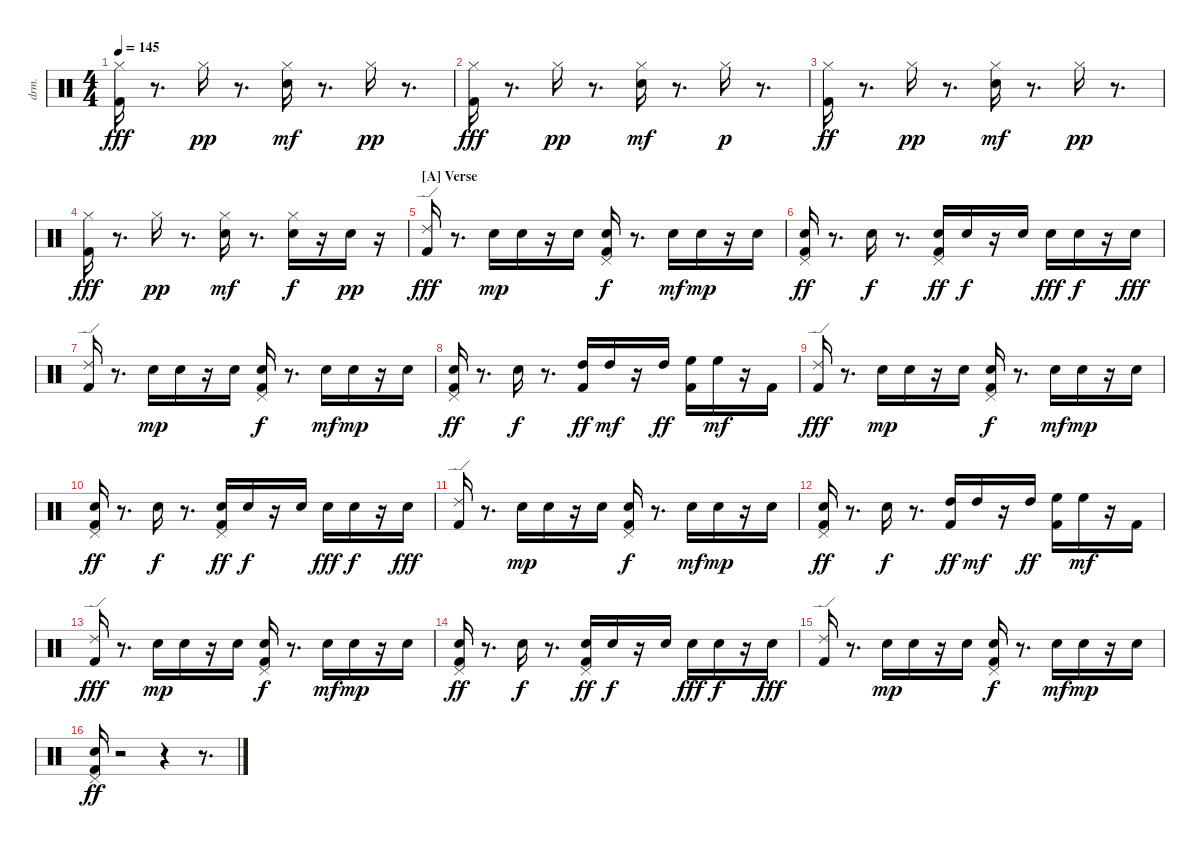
\bracketExtendMode nobrackets
\track ("EZdrummer 3" "drm.") {instrument percussion}
\staff {score}
\articulation defaults
\ts (4 4)
\tempo 145
\clef neutral
\ks aminor
("Kick (hit) 2" "Hi-Hat (closed)"{acc #}).16{dy fff} r.8{d} "Hi-Hat (closed)"{acc #}.16{dy pp} r.8{d} ("Snare (hit) 2" "Hi-Hat (closed)"{acc #}).16{dy mf} r.8{d} "Hi-Hat (closed)"{acc #}.16{dy pp} r.8{d} |
("Kick (hit) 2" "Hi-Hat (closed)"{acc #}).16{dy fff} r.8{d} "Hi-Hat (closed)"{acc #}.16{dy pp} r.8{d} ("Snare (hit) 2" "Hi-Hat (closed)"{acc #}).16{dy mf} r.8{d} "Hi-Hat (closed)"{acc #}.16{dy p} r.8{d} |
("Kick (hit) 2" "Hi-Hat (closed)"{acc #}).16{dy ff} r.8{d} "Hi-Hat (closed)"{acc #}.16{dy pp} r.8{d} ("Snare (hit) 2" "Hi-Hat (closed)"{acc #}).16{dy mf} r.8{d} "Hi-Hat (closed)"{acc #}.16{dy pp} r.8{d} |
("Kick (hit) 2" "Hi-Hat (closed)"{acc #}).16{dy fff} r.8{d} "Hi-Hat (closed)"{acc #}.16{dy pp} r.8{d} ("Snare (hit) 2" "Hi-Hat (closed)"{acc #}).16{dy mf} r.8{d} ("Snare (hit) 2" "Hi-Hat (closed)"{acc #}).16{dy f} r.16 "Snare (hit) 2".16{dy pp} r.16 |
\section ("A" "Verse")
("Kick (hit) 2" "Ride (edge) 2").16{dy fff} r.8{d} "Snare (hit) 2".16{dy mp} "Snare (hit) 2".16 r.16 "Snare (hit) 2".16 ("Kick (hit) 2" "Snare (hit) 2" "Pedal Hi-Hat (hit)"{acc #}).16{dy f} r.8{d} "Snare (hit) 2".16{dy mf} "Snare (hit) 2".16{dy mp} r.16 "Snare (hit) 2".16 |
("Kick (hit) 2" "Snare (hit) 2" "Pedal Hi-Hat (hit)"{acc #}).16{dy ff} r.8{d} "Snare (hit) 2".16{dy f} r.8{d} ("Kick (hit) 2" "Snare (hit) 2" "Pedal Hi-Hat (hit)"{acc #}).16{dy ff} "Snare (hit) 2".16{dy f} r.16 "Snare (hit) 2".16 "Snare (hit) 2".16{dy fff} "Snare (hit) 2".16{dy f} r.16 "Snare (hit) 2".16{dy fff} |
("Kick (hit) 2" "Ride (edge) 2").16 r.8{d} "Snare (hit) 2".16{dy mp} "Snare (hit) 2".16 r.16 "Snare (hit) 2".16 ("Kick (hit) 2" "Snare (hit) 2" "Pedal Hi-Hat (hit)"{acc #}).16{dy f} r.8{d} "Snare (hit) 2".16{dy mf} "Snare (hit) 2".16{dy mp} r.16 "Snare (hit) 2".16 |
("Kick (hit) 2" "Snare (hit) 2" "Pedal Hi-Hat (hit)"{acc #}).16{dy ff} r.8{d} "Snare (hit) 2".16{dy f} r.8{d} ("Kick (hit) 2" "High Tom (hit)").16{dy ff} "High Tom (hit)".16{dy mf} r.16 "High Tom (hit)".16{dy ff} ("Kick (hit) 2" "High Floor Tom (hit)").16 "High Floor Tom (hit)".16{dy mf} r.16 "Kick (hit) 2".16 |
("Kick (hit) 2" "Ride (edge) 2").16{dy fff} r.8{d} "Snare (hit) 2".16{dy mp} "Snare (hit) 2".16 r.16 "Snare (hit) 2".16 ("Kick (hit) 2" "Snare (hit) 2" "Pedal Hi-Hat (hit)"{acc #}).16{dy f} r.8{d} "Snare (hit) 2".16{dy mf} "Snare (hit) 2".16{dy mp} r.16 "Snare (hit) 2".16 |
("Kick (hit) 2" "Snare (hit) 2" "Pedal Hi-Hat (hit)"{acc #}).16{dy ff} r.8{d} "Snare (hit) 2".16{dy f} r.8{d} ("Kick (hit) 2" "Snare (hit) 2" "Pedal Hi-Hat (hit)"{acc #}).16{dy ff} "Snare (hit) 2".16{dy f} r.16 "Snare (hit) 2".16 "Snare (hit) 2".16{dy fff} "Snare (hit) 2".16{dy f} r.16 "Snare (hit) 2".16{dy fff} |
("Kick (hit) 2" "Ride (edge) 2").16 r.8{d} "Snare (hit) 2".16{dy mp} "Snare (hit) 2".16 r.16 "Snare (hit) 2".16 ("Kick (hit) 2" "Snare (hit) 2" "Pedal Hi-Hat (hit)"{acc #}).16{dy f} r.8{d} "Snare (hit) 2".16{dy mf} "Snare (hit) 2".16{dy mp} r.16 "Snare (hit) 2".16 |
("Kick (hit) 2" "Snare (hit) 2" "Pedal Hi-Hat (hit)"{acc #}).16{dy ff} r.8{d} "Snare (hit) 2".16{dy f} r.8{d} ("Kick (hit) 2" "High Tom (hit)").16{dy ff} "High Tom (hit)".16{dy mf} r.16 "High Tom (hit)".16{dy ff} ("Kick (hit) 2" "High Floor Tom (hit)").16 "High Floor Tom (hit)".16{dy mf} r.16 "Kick (hit) 2".16 |
("Kick (hit) 2" "Ride (edge) 2").16{dy fff} r.8{d} "Snare (hit) 2".16{dy mp} "Snare (hit) 2".16 r.16 "Snare (hit) 2".16 ("Kick (hit) 2" "Snare (hit) 2" "Pedal Hi-Hat (hit)"{acc #}).16{dy f} r.8{d} "Snare (hit) 2".16{dy mf} "Snare (hit) 2".16{dy mp} r.16 "Snare (hit) 2".16 |
("Kick (hit) 2" "Snare (hit) 2" "Pedal Hi-Hat (hit)"{acc #}).16{dy ff} r.8{d} "Snare (hit) 2".16{dy f} r.8{d} ("Kick (hit) 2" "Snare (hit) 2" "Pedal Hi-Hat (hit)"{acc #}).16{dy ff} "Snare (hit) 2".16{dy f} r.16 "Snare (hit) 2".16 "Snare (hit) 2".16{dy fff} "Snare (hit) 2".16{dy f} r.16 "Snare (hit) 2".16{dy fff} |
("Kick (hit) 2" "Ride (edge) 2").16 r.8{d} "Snare (hit) 2".16{dy mp} "Snare (hit) 2".16 r.16 "Snare (hit) 2".16 ("Kick (hit) 2" "Snare (hit) 2" "Pedal Hi-Hat (hit)"{acc #}).16{dy f} r.8{d} "Snare (hit) 2".16{dy mf} "Snare (hit) 2".16{dy mp} r.16 "Snare (hit) 2".16 |
("Kick (hit) 2" "Snare (hit) 2" "Pedal Hi-Hat (hit)"{acc #}).16{dy ff} r.2 r.4 r.8{d}
